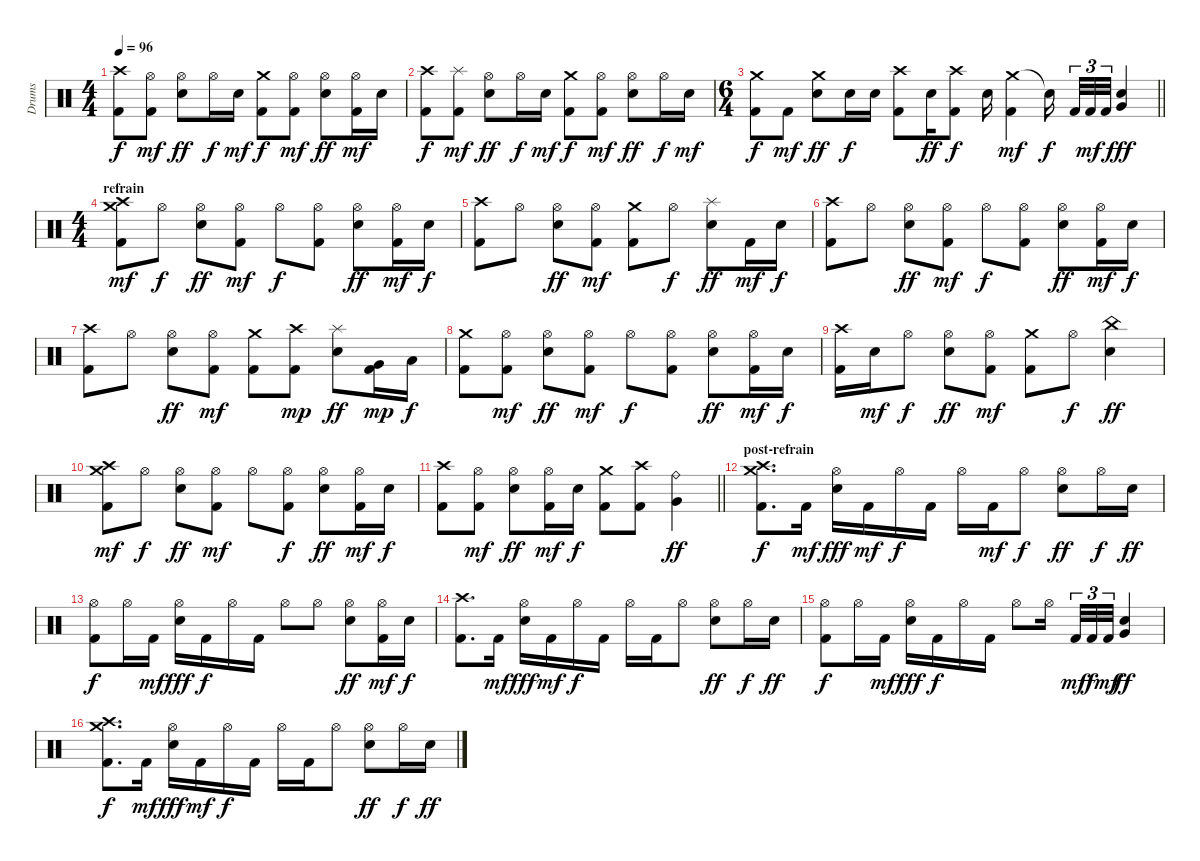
\track ("Drums" "Drums") {instrument percussion}
\staff {score}
\articulation defaults
\ts (4 4)
\tempo 96
\clef neutral
\ks c
("Crash high (hit)" "Kick (hit) 2").8{dy f} ("Hi-Hat (open)" "Kick (hit) 2").8{dy mf} ("Hi-Hat (open)" "Electric Snare (hit)").8{dy ff} "Hi-Hat (open)".16{dy f} "Electric Snare (hit)".16{dy mf} ("Crash medium (hit)" "Kick (hit) 2").8{dy f} ("Hi-Hat (open)" "Kick (hit) 2").8{dy mf} ("Hi-Hat (open)" "Electric Snare (hit)").8{dy ff} ("Hi-Hat (open)" "Kick (hit) 2").16{dy mf} "Electric Snare (hit)".16 |
("Crash high (hit)" "Kick (hit) 2").8{dy f} ("Splash (hit)" "Kick (hit) 2").8{dy mf} ("Hi-Hat (open)" "Electric Snare (hit)").8{dy ff} "Hi-Hat (open)".16{dy f} "Electric Snare (hit)".16{dy mf} ("Crash medium (hit)" "Kick (hit) 2").8{dy f} ("Hi-Hat (open)" "Kick (hit) 2").8{dy mf} ("Hi-Hat (open)" "Electric Snare (hit)").8{dy ff} "Hi-Hat (open)".16{dy f} "Electric Snare (hit)".16{dy mf} |
\ts (6 4)
\barLineRight lightlight
("Crash medium (hit)" "Kick (hit) 2").8{dy f} "Kick (hit) 2".8{dy mf} ("Crash medium (hit)" "Electric Snare (hit)").8{dy ff} "Electric Snare (hit)".16{dy f} "Electric Snare (hit)".16 ("Crash high (hit)" "Kick (hit) 2").8 "Electric Snare (hit)".16{dy ff} ("Crash high (hit)" "Kick (hit) 2").8{dy f} "Electric Snare (hit)".16 ("Crash medium (hit)" "Kick (hit) 2").4{dy mf} "Snare (hit)"{t}.16{dy f beam splitsecondary} "Kick (hit) 2".32{tu (3 2)} "Kick (hit) 2".32{tu (3 2) dy mf} "Kick (hit) 2".32{tu (3 2)} ("Very Low Tom (hit)" "Electric Snare (hit)").4{dy fff} |
\ts (4 4)
\section ("" "refrain")
("Crash medium (hit)" "Crash high (hit)" "Kick (hit) 2").8{dy mf} "Hi-Hat (open)".8{dy f} ("Hi-Hat (open)" "Electric Snare (hit)").8{dy ff} ("Hi-Hat (open)" "Kick (hit) 2").8{dy mf} "Hi-Hat (open)".8{dy f} ("Hi-Hat (open)" "Kick (hit) 2").8 ("Hi-Hat (open)" "Electric Snare (hit)").8{dy ff} ("Hi-Hat (open)" "Kick (hit) 2").16{dy mf} "Electric Snare (hit)".16{dy f} |
("Crash high (hit)" "Kick (hit) 2").8 "Hi-Hat (open)".8 ("Hi-Hat (open)" "Electric Snare (hit)").8{dy ff} ("Hi-Hat (open)" "Kick (hit) 2").8{dy mf} ("Crash medium (hit)" "Kick (hit) 2").8 "Hi-Hat (open)".8{dy f} ("Splash (hit)" "Electric Snare (hit)").8{dy ff} "Kick (hit) 2".16{dy mf} "Electric Snare (hit)".16{dy f} |
("Crash high (hit)" "Kick (hit) 2").8 "Hi-Hat (open)".8 ("Hi-Hat (open)" "Electric Snare (hit)").8{dy ff} ("Hi-Hat (open)" "Kick (hit) 2").8{dy mf} "Hi-Hat (open)".8{dy f} ("Hi-Hat (open)" "Kick (hit) 2").8 ("Hi-Hat (open)" "Electric Snare (hit)").8{dy ff} ("Hi-Hat (open)" "Kick (hit) 2").16{dy mf} "Electric Snare (hit)".16{dy f} |
("Crash high (hit)" "Kick (hit) 2").8 "Hi-Hat (open)".8 ("Hi-Hat (open)" "Electric Snare (hit)").8{dy ff} ("Hi-Hat (open)" "Kick (hit) 2").8{dy mf} ("Crash medium (hit)" "Kick (hit) 2").8 ("Crash high (hit)" "Kick (hit) 2").8{dy mp} ("Splash (hit)" "Electric Snare (hit)").8{dy ff} ("Very Low Tom (hit)" "Kick (hit) 2").16{dy mp} "Low Tom (hit)".16{dy f} |
("Crash medium (hit)" "Kick (hit) 2").8 ("Hi-Hat (open)" "Kick (hit) 2").8{dy mf} ("Hi-Hat (open)" "Electric Snare (hit)").8{dy ff} ("Hi-Hat (open)" "Kick (hit) 2").8{dy mf} "Hi-Hat (open)".8{dy f} ("Hi-Hat (open)" "Kick (hit) 2").8 ("Hi-Hat (open)" "Electric Snare (hit)").8{dy ff} ("Hi-Hat (open)" "Kick (hit) 2").16{dy mf} "Electric Snare (hit)".16{dy f} |
("Crash high (hit)" "Kick (hit) 2").16 "Electric Snare (hit)".16{dy mf} "Hi-Hat (open)".8{dy f} ("Hi-Hat (open)" "Electric Snare (hit)").8{dy ff} ("Hi-Hat (open)" "Kick (hit) 2").8{dy mf} ("Crash medium (hit)" "Kick (hit) 2").8 "Hi-Hat (open)".8{dy f} ("China (hit)" "Electric Snare (hit)").4{dy ff} |
("Crash medium (hit)" "Crash high (hit)" "Kick (hit) 2").8{dy mf} "Hi-Hat (open)".8{dy f} ("Hi-Hat (open)" "Electric Snare (hit)").8{dy ff} ("Hi-Hat (open)" "Kick (hit) 2").8{dy mf} "Hi-Hat (open)".8 ("Hi-Hat (open)" "Kick (hit) 2").8{dy f} ("Hi-Hat (open)" "Electric Snare (hit)").8{dy ff} ("Hi-Hat (open)" "Kick (hit) 2").16{dy mf} "Electric Snare (hit)".16{dy f} |
\barLineRight lightlight
("Crash high (hit)" "Kick (hit) 2").8 ("Hi-Hat (open)" "Kick (hit) 2").8{dy mf} ("Hi-Hat (open)" "Electric Snare (hit)").8{dy ff} ("Hi-Hat (open)" "Kick (hit) 2").16{dy mf} "Electric Snare (hit)".16{dy f} ("Crash medium (hit)" "Kick (hit) 2").8 ("Crash high (hit)" "Kick (hit) 2").8 ("Very Low Tom (hit)" "Ride (bell)").4{dy ff} |
\section ("" "post-refrain")
("Crash medium (hit)" "Crash high (hit)" "Kick (hit) 2").8{d dy f} "Kick (hit) 2".16{dy mf} ("Hi-Hat (open)" "Electric Snare (hit)").16{dy fff} "Kick (hit) 2".16{dy mf} "Hi-Hat (open)".16{dy f} "Kick (hit) 2".16 "Hi-Hat (open)".16 "Kick (hit) 2".16{dy mf} "Hi-Hat (open)".8{dy f} ("Hi-Hat (open)" "Electric Snare (hit)").8{dy ff} "Hi-Hat (open)".16{dy f} "Electric Snare (hit)".16{dy ff} |
("Hi-Hat (open)" "Kick (hit) 2").8{dy f} "Hi-Hat (open)".16 "Kick (hit) 2".16{dy mf} ("Hi-Hat (open)" "Electric Snare (hit)").16{dy fff} "Kick (hit) 2".16{dy f} "Hi-Hat (open)".16 "Kick (hit) 2".16 "Hi-Hat (open)".8 "Hi-Hat (open)".8 ("Hi-Hat (open)" "Electric Snare (hit)").8{dy ff} ("Hi-Hat (open)" "Kick (hit) 2").16{dy mf} "Electric Snare (hit)".16{dy f} |
("Crash high (hit)" "Kick (hit) 2").8{d} "Kick (hit) 2".16{dy mf} ("Hi-Hat (open)" "Electric Snare (hit)").16{dy fff} "Kick (hit) 2".16{dy mf} "Hi-Hat (open)".16{dy f} "Kick (hit) 2".16 "Hi-Hat (open)".16 "Kick (hit) 2".16 "Hi-Hat (open)".8 ("Hi-Hat (open)" "Electric Snare (hit)").8{dy ff} "Hi-Hat (open)".16{dy f} "Electric Snare (hit)".16{dy ff} |
("Hi-Hat (open)" "Kick (hit) 2").8{dy f} "Hi-Hat (open)".16 "Kick (hit) 2".16{dy mf} ("Hi-Hat (open)" "Electric Snare (hit)").16{dy fff} "Kick (hit) 2".16{dy f} "Hi-Hat (open)".16 "Kick (hit) 2".16 "Hi-Hat (open)".8 "Hi-Hat (open)".16{beam splitsecondary} "Kick (hit) 2".32{tu (3 2) dy mf} "Kick (hit) 2".32{tu (3 2) dy f} "Kick (hit) 2".32{tu (3 2) dy mf} ("Very Low Tom (hit)" "Electric Snare (hit)").4{dy ff} |
("Crash medium (hit)" "Crash high (hit)" "Kick (hit) 2").8{d dy f} "Kick (hit) 2".16{dy mf} ("Hi-Hat (open)" "Electric Snare (hit)").16{dy fff} "Kick (hit) 2".16{dy mf} "Hi-Hat (open)".16{dy f} "Kick (hit) 2".16 "Hi-Hat (open)".16 "Kick (hit) 2".16 "Hi-Hat (open)".8 ("Hi-Hat (open)" "Electric Snare (hit)").8{dy ff} "Hi-Hat (open)".16{dy f} "Electric Snare (hit)".16{dy ff}
